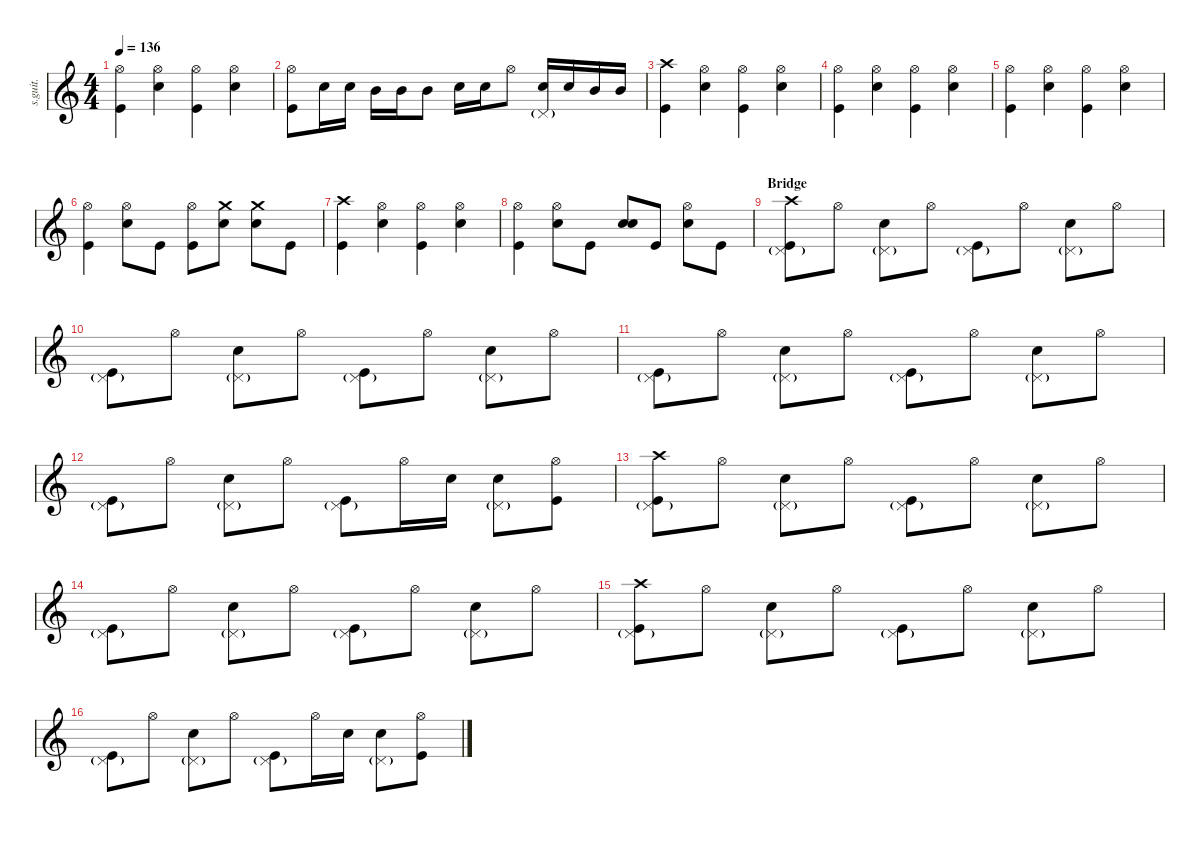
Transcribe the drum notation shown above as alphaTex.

\defaultSystemsLayout 4
\hideDynamics
\bracketExtendMode nobrackets
\track ("Ilan Rubin" "s.guit.") {instrument percussion}
\staff {score}
\articulation defaults
\ts (4 4)
\tempo 136
\clef g2
\ks c
("Hi-Hat (open)" "Kick (hit)").4{lyrics (0 "") lyrics (1 "") lyrics (2 "") lyrics (3 "") lyrics (4 "") dy f} ("Hi-Hat (open)" "Electric Snare (hit)").4{lyrics (0 "") lyrics (1 "") lyrics (2 "") lyrics (3 "") lyrics (4 "")} ("Hi-Hat (open)" "Kick (hit)").4{lyrics (0 "") lyrics (1 "") lyrics (2 "") lyrics (3 "") lyrics (4 "")} ("Hi-Hat (open)" "Electric Snare (hit)").4{lyrics (0 "") lyrics (1 "") lyrics (2 "") lyrics (3 "") lyrics (4 "")} |
("Hi-Hat (open)" "Kick (hit)").8{lyrics (0 "") lyrics (1 "") lyrics (2 "") lyrics (3 "") lyrics (4 "")} "Electric Snare (hit)".16{lyrics (0 "") lyrics (1 "") lyrics (2 "") lyrics (3 "") lyrics (4 "")} "Electric Snare (hit)".16{lyrics (0 "") lyrics (1 "") lyrics (2 "") lyrics (3 "") lyrics (4 "")} "Mid Tom (hit)".16{lyrics (0 "") lyrics (1 "") lyrics (2 "") lyrics (3 "") lyrics (4 "")} "Mid Tom (hit)".16{lyrics (0 "") lyrics (1 "") lyrics (2 "") lyrics (3 "") lyrics (4 "")} "Mid Tom (hit)".8{lyrics (0 "") lyrics (1 "") lyrics (2 "") lyrics (3 "") lyrics (4 "")} "Electric Snare (hit)".16{lyrics (0 "") lyrics (1 "") lyrics (2 "") lyrics (3 "") lyrics (4 "")} "Electric Snare (hit)".16{lyrics (0 "") lyrics (1 "") lyrics (2 "") lyrics (3 "") lyrics (4 "")} "Hi-Hat (open)".8{lyrics (0 "") lyrics (1 "") lyrics (2 "") lyrics (3 "") lyrics (4 "")} ("Electric Snare (hit)" "Pedal Hi-Hat (hit)"{g}).16{lyrics (0 "") lyrics (1 "") lyrics (2 "") lyrics (3 "") lyrics (4 "")} "Electric Snare (hit)".16{lyrics (0 "") lyrics (1 "") lyrics (2 "") lyrics (3 "") lyrics (4 "")} "Mid Tom (hit)".16{lyrics (0 "") lyrics (1 "") lyrics (2 "") lyrics (3 "") lyrics (4 "")} "Mid Tom (hit)".16{lyrics (0 "") lyrics (1 "") lyrics (2 "") lyrics (3 "") lyrics (4 "")} |
("Crash high (hit)" "Kick (hit)").4{lyrics (0 "") lyrics (1 "") lyrics (2 "") lyrics (3 "") lyrics (4 "")} ("Hi-Hat (open)" "Electric Snare (hit)").4{lyrics (0 "") lyrics (1 "") lyrics (2 "") lyrics (3 "") lyrics (4 "")} ("Hi-Hat (open)" "Kick (hit)").4{lyrics (0 "") lyrics (1 "") lyrics (2 "") lyrics (3 "") lyrics (4 "")} ("Hi-Hat (open)" "Electric Snare (hit)").4{lyrics (0 "") lyrics (1 "") lyrics (2 "") lyrics (3 "") lyrics (4 "")} |
("Hi-Hat (open)" "Kick (hit)").4{lyrics (0 "") lyrics (1 "") lyrics (2 "") lyrics (3 "") lyrics (4 "")} ("Hi-Hat (open)" "Electric Snare (hit)").4{lyrics (0 "") lyrics (1 "") lyrics (2 "") lyrics (3 "") lyrics (4 "")} ("Hi-Hat (open)" "Kick (hit)").4{lyrics (0 "") lyrics (1 "") lyrics (2 "") lyrics (3 "") lyrics (4 "")} ("Hi-Hat (open)" "Electric Snare (hit)").4{lyrics (0 "") lyrics (1 "") lyrics (2 "") lyrics (3 "") lyrics (4 "")} |
("Hi-Hat (open)" "Kick (hit)").4{lyrics (0 "") lyrics (1 "") lyrics (2 "") lyrics (3 "") lyrics (4 "")} ("Hi-Hat (open)" "Electric Snare (hit)").4{lyrics (0 "") lyrics (1 "") lyrics (2 "") lyrics (3 "") lyrics (4 "")} ("Hi-Hat (open)" "Kick (hit)").4{lyrics (0 "") lyrics (1 "") lyrics (2 "") lyrics (3 "") lyrics (4 "")} ("Hi-Hat (open)" "Electric Snare (hit)").4{lyrics (0 "") lyrics (1 "") lyrics (2 "") lyrics (3 "") lyrics (4 "")} |
("Hi-Hat (open)" "Kick (hit)").4{lyrics (0 "") lyrics (1 "") lyrics (2 "") lyrics (3 "") lyrics (4 "")} ("Hi-Hat (open)" "Electric Snare (hit)").8{lyrics (0 "") lyrics (1 "") lyrics (2 "") lyrics (3 "") lyrics (4 "")} "Kick (hit)".8{lyrics (0 "") lyrics (1 "") lyrics (2 "") lyrics (3 "") lyrics (4 "") dy ff} ("Hi-Hat (open)" "Kick (hit)").8{lyrics (0 "") lyrics (1 "") lyrics (2 "") lyrics (3 "") lyrics (4 "")} ("Crash medium (hit)" "Electric Snare (hit)").8{lyrics (0 "") lyrics (1 "") lyrics (2 "") lyrics (3 "") lyrics (4 "") dy f} ("Crash medium (hit)" "Electric Snare (hit)").8{lyrics (0 "") lyrics (1 "") lyrics (2 "") lyrics (3 "") lyrics (4 "")} "Kick (hit)".8{lyrics (0 "") lyrics (1 "") lyrics (2 "") lyrics (3 "") lyrics (4 "") dy ff} |
("Crash high (hit)" "Kick (hit)").4{lyrics (0 "") lyrics (1 "") lyrics (2 "") lyrics (3 "") lyrics (4 "")} ("Hi-Hat (open)" "Electric Snare (hit)").4{lyrics (0 "") lyrics (1 "") lyrics (2 "") lyrics (3 "") lyrics (4 "") dy f} ("Hi-Hat (open)" "Kick (hit)").4{lyrics (0 "") lyrics (1 "") lyrics (2 "") lyrics (3 "") lyrics (4 "")} ("Hi-Hat (open)" "Electric Snare (hit)").4{lyrics (0 "") lyrics (1 "") lyrics (2 "") lyrics (3 "") lyrics (4 "")} |
("Hi-Hat (open)" "Kick (hit)").4{lyrics (0 "") lyrics (1 "") lyrics (2 "") lyrics (3 "") lyrics (4 "")} ("Hi-Hat (open)" "Electric Snare (hit)").8{lyrics (0 "") lyrics (1 "") lyrics (2 "") lyrics (3 "") lyrics (4 "")} "Kick (hit)".8{lyrics (0 "") lyrics (1 "") lyrics (2 "") lyrics (3 "") lyrics (4 "") dy ff} ("Electric Snare (hit)" "Electric Snare (hit)").8{bd 30 lyrics (0 "") lyrics (1 "") lyrics (2 "") lyrics (3 "") lyrics (4 "") dy f} "Kick (hit)".8{lyrics (0 "") lyrics (1 "") lyrics (2 "") lyrics (3 "") lyrics (4 "") dy ff} ("Hi-Hat (open)" "Electric Snare (hit)").8{lyrics (0 "") lyrics (1 "") lyrics (2 "") lyrics (3 "") lyrics (4 "") dy f} "Kick (hit)".8{lyrics (0 "") lyrics (1 "") lyrics (2 "") lyrics (3 "") lyrics (4 "") dy ff} |
\section ("" "Bridge")
("Crash high (hit)" "Pedal Hi-Hat (hit)"{g} "Kick (hit)").8{lyrics (0 "") lyrics (1 "") lyrics (2 "") lyrics (3 "") lyrics (4 "")} "Hi-Hat (open)".8{lyrics (0 "") lyrics (1 "") lyrics (2 "") lyrics (3 "") lyrics (4 "") dy f} ("Electric Snare (hit)" "Pedal Hi-Hat (hit)"{g}).8{lyrics (0 "") lyrics (1 "") lyrics (2 "") lyrics (3 "") lyrics (4 "")} "Hi-Hat (open)".8{lyrics (0 "") lyrics (1 "") lyrics (2 "") lyrics (3 "") lyrics (4 "")} ("Pedal Hi-Hat (hit)"{g} "Kick (hit)").8{lyrics (0 "") lyrics (1 "") lyrics (2 "") lyrics (3 "") lyrics (4 "") dy mp} "Hi-Hat (open)".8{lyrics (0 "") lyrics (1 "") lyrics (2 "") lyrics (3 "") lyrics (4 "") dy f} ("Electric Snare (hit)" "Pedal Hi-Hat (hit)"{g}).8{lyrics (0 "") lyrics (1 "") lyrics (2 "") lyrics (3 "") lyrics (4 "")} "Hi-Hat (open)".8{lyrics (0 "") lyrics (1 "") lyrics (2 "") lyrics (3 "") lyrics (4 "")} |
("Pedal Hi-Hat (hit)"{g} "Kick (hit)").8{lyrics (0 "") lyrics (1 "") lyrics (2 "") lyrics (3 "") lyrics (4 "") dy mp} "Hi-Hat (open)".8{lyrics (0 "") lyrics (1 "") lyrics (2 "") lyrics (3 "") lyrics (4 "") dy f} ("Electric Snare (hit)" "Pedal Hi-Hat (hit)"{g}).8{lyrics (0 "") lyrics (1 "") lyrics (2 "") lyrics (3 "") lyrics (4 "")} "Hi-Hat (open)".8{lyrics (0 "") lyrics (1 "") lyrics (2 "") lyrics (3 "") lyrics (4 "")} ("Pedal Hi-Hat (hit)"{g} "Kick (hit)").8{lyrics (0 "") lyrics (1 "") lyrics (2 "") lyrics (3 "") lyrics (4 "") dy mp} "Hi-Hat (open)".8{lyrics (0 "") lyrics (1 "") lyrics (2 "") lyrics (3 "") lyrics (4 "") dy f} ("Electric Snare (hit)" "Pedal Hi-Hat (hit)"{g}).8{lyrics (0 "") lyrics (1 "") lyrics (2 "") lyrics (3 "") lyrics (4 "")} "Hi-Hat (open)".8{lyrics (0 "") lyrics (1 "") lyrics (2 "") lyrics (3 "") lyrics (4 "")} |
("Pedal Hi-Hat (hit)"{g} "Kick (hit)").8{lyrics (0 "") lyrics (1 "") lyrics (2 "") lyrics (3 "") lyrics (4 "") dy mp} "Hi-Hat (open)".8{lyrics (0 "") lyrics (1 "") lyrics (2 "") lyrics (3 "") lyrics (4 "") dy f} ("Electric Snare (hit)" "Pedal Hi-Hat (hit)"{g}).8{lyrics (0 "") lyrics (1 "") lyrics (2 "") lyrics (3 "") lyrics (4 "")} "Hi-Hat (open)".8{lyrics (0 "") lyrics (1 "") lyrics (2 "") lyrics (3 "") lyrics (4 "")} ("Pedal Hi-Hat (hit)"{g} "Kick (hit)").8{lyrics (0 "") lyrics (1 "") lyrics (2 "") lyrics (3 "") lyrics (4 "") dy mp} "Hi-Hat (open)".8{lyrics (0 "") lyrics (1 "") lyrics (2 "") lyrics (3 "") lyrics (4 "") dy f} ("Electric Snare (hit)" "Pedal Hi-Hat (hit)"{g}).8{lyrics (0 "") lyrics (1 "") lyrics (2 "") lyrics (3 "") lyrics (4 "")} "Hi-Hat (open)".8{lyrics (0 "") lyrics (1 "") lyrics (2 "") lyrics (3 "") lyrics (4 "")} |
("Pedal Hi-Hat (hit)"{g} "Kick (hit)").8{lyrics (0 "") lyrics (1 "") lyrics (2 "") lyrics (3 "") lyrics (4 "") dy mp} "Hi-Hat (open)".8{lyrics (0 "") lyrics (1 "") lyrics (2 "") lyrics (3 "") lyrics (4 "") dy f} ("Electric Snare (hit)" "Pedal Hi-Hat (hit)"{g}).8{lyrics (0 "") lyrics (1 "") lyrics (2 "") lyrics (3 "") lyrics (4 "")} "Hi-Hat (open)".8{lyrics (0 "") lyrics (1 "") lyrics (2 "") lyrics (3 "") lyrics (4 "")} ("Pedal Hi-Hat (hit)"{g} "Kick (hit)").8{lyrics (0 "") lyrics (1 "") lyrics (2 "") lyrics (3 "") lyrics (4 "") dy mp} "Hi-Hat (open)".16{lyrics (0 "") lyrics (1 "") lyrics (2 "") lyrics (3 "") lyrics (4 "") dy f} "Electric Snare (hit)".16{lyrics (0 "") lyrics (1 "") lyrics (2 "") lyrics (3 "") lyrics (4 "")} ("Electric Snare (hit)" "Pedal Hi-Hat (hit)"{g}).8{lyrics (0 "") lyrics (1 "") lyrics (2 "") lyrics (3 "") lyrics (4 "")} ("Hi-Hat (open)" "Kick (hit)").8{lyrics (0 "") lyrics (1 "") lyrics (2 "") lyrics (3 "") lyrics (4 "")} |
("Crash high (hit)" "Pedal Hi-Hat (hit)"{g} "Kick (hit)").8{lyrics (0 "") lyrics (1 "") lyrics (2 "") lyrics (3 "") lyrics (4 "")} "Hi-Hat (open)".8{lyrics (0 "") lyrics (1 "") lyrics (2 "") lyrics (3 "") lyrics (4 "")} ("Electric Snare (hit)" "Pedal Hi-Hat (hit)"{g}).8{lyrics (0 "") lyrics (1 "") lyrics (2 "") lyrics (3 "") lyrics (4 "")} "Hi-Hat (open)".8{lyrics (0 "") lyrics (1 "") lyrics (2 "") lyrics (3 "") lyrics (4 "")} ("Pedal Hi-Hat (hit)"{g} "Kick (hit)").8{lyrics (0 "") lyrics (1 "") lyrics (2 "") lyrics (3 "") lyrics (4 "") dy mp} "Hi-Hat (open)".8{lyrics (0 "") lyrics (1 "") lyrics (2 "") lyrics (3 "") lyrics (4 "") dy f} ("Electric Snare (hit)" "Pedal Hi-Hat (hit)"{g}).8{lyrics (0 "") lyrics (1 "") lyrics (2 "") lyrics (3 "") lyrics (4 "")} "Hi-Hat (open)".8{lyrics (0 "") lyrics (1 "") lyrics (2 "") lyrics (3 "") lyrics (4 "")} |
("Pedal Hi-Hat (hit)"{g} "Kick (hit)").8{lyrics (0 "") lyrics (1 "") lyrics (2 "") lyrics (3 "") lyrics (4 "") dy mp} "Hi-Hat (open)".8{lyrics (0 "") lyrics (1 "") lyrics (2 "") lyrics (3 "") lyrics (4 "") dy f} ("Electric Snare (hit)" "Pedal Hi-Hat (hit)"{g}).8{lyrics (0 "") lyrics (1 "") lyrics (2 "") lyrics (3 "") lyrics (4 "")} "Hi-Hat (open)".8{lyrics (0 "") lyrics (1 "") lyrics (2 "") lyrics (3 "") lyrics (4 "")} ("Pedal Hi-Hat (hit)"{g} "Kick (hit)").8{lyrics (0 "") lyrics (1 "") lyrics (2 "") lyrics (3 "") lyrics (4 "") dy mp} "Hi-Hat (open)".8{lyrics (0 "") lyrics (1 "") lyrics (2 "") lyrics (3 "") lyrics (4 "") dy f} ("Electric Snare (hit)" "Pedal Hi-Hat (hit)"{g}).8{lyrics (0 "") lyrics (1 "") lyrics (2 "") lyrics (3 "") lyrics (4 "")} "Hi-Hat (open)".8{lyrics (0 "") lyrics (1 "") lyrics (2 "") lyrics (3 "") lyrics (4 "")} |
("Crash high (hit)" "Pedal Hi-Hat (hit)"{g} "Kick (hit)").8{lyrics (0 "") lyrics (1 "") lyrics (2 "") lyrics (3 "") lyrics (4 "")} "Hi-Hat (open)".8{lyrics (0 "") lyrics (1 "") lyrics (2 "") lyrics (3 "") lyrics (4 "")} ("Electric Snare (hit)" "Pedal Hi-Hat (hit)"{g}).8{lyrics (0 "") lyrics (1 "") lyrics (2 "") lyrics (3 "") lyrics (4 "")} "Hi-Hat (open)".8{lyrics (0 "") lyrics (1 "") lyrics (2 "") lyrics (3 "") lyrics (4 "")} ("Pedal Hi-Hat (hit)"{g} "Kick (hit)").8{lyrics (0 "") lyrics (1 "") lyrics (2 "") lyrics (3 "") lyrics (4 "") dy mp} "Hi-Hat (open)".8{lyrics (0 "") lyrics (1 "") lyrics (2 "") lyrics (3 "") lyrics (4 "") dy f} ("Electric Snare (hit)" "Pedal Hi-Hat (hit)"{g}).8{lyrics (0 "") lyrics (1 "") lyrics (2 "") lyrics (3 "") lyrics (4 "")} "Hi-Hat (open)".8{lyrics (0 "") lyrics (1 "") lyrics (2 "") lyrics (3 "") lyrics (4 "")} |
("Pedal Hi-Hat (hit)"{g} "Kick (hit)").8{lyrics (0 "") lyrics (1 "") lyrics (2 "") lyrics (3 "") lyrics (4 "") dy mp} "Hi-Hat (open)".8{lyrics (0 "") lyrics (1 "") lyrics (2 "") lyrics (3 "") lyrics (4 "") dy f} ("Electric Snare (hit)" "Pedal Hi-Hat (hit)"{g}).8{lyrics (0 "") lyrics (1 "") lyrics (2 "") lyrics (3 "") lyrics (4 "")} "Hi-Hat (open)".8{lyrics (0 "") lyrics (1 "") lyrics (2 "") lyrics (3 "") lyrics (4 "")} ("Pedal Hi-Hat (hit)"{g} "Kick (hit)").8{lyrics (0 "") lyrics (1 "") lyrics (2 "") lyrics (3 "") lyrics (4 "") dy mp} "Hi-Hat (open)".16{lyrics (0 "") lyrics (1 "") lyrics (2 "") lyrics (3 "") lyrics (4 "") dy f} "Electric Snare (hit)".16{lyrics (0 "") lyrics (1 "") lyrics (2 "") lyrics (3 "") lyrics (4 "")} ("Electric Snare (hit)" "Pedal Hi-Hat (hit)"{g}).8{lyrics (0 "") lyrics (1 "") lyrics (2 "") lyrics (3 "") lyrics (4 "")} ("Hi-Hat (open)" "Kick (hit)").8{lyrics (0 "") lyrics (1 "") lyrics (2 "") lyrics (3 "") lyrics (4 "")}
